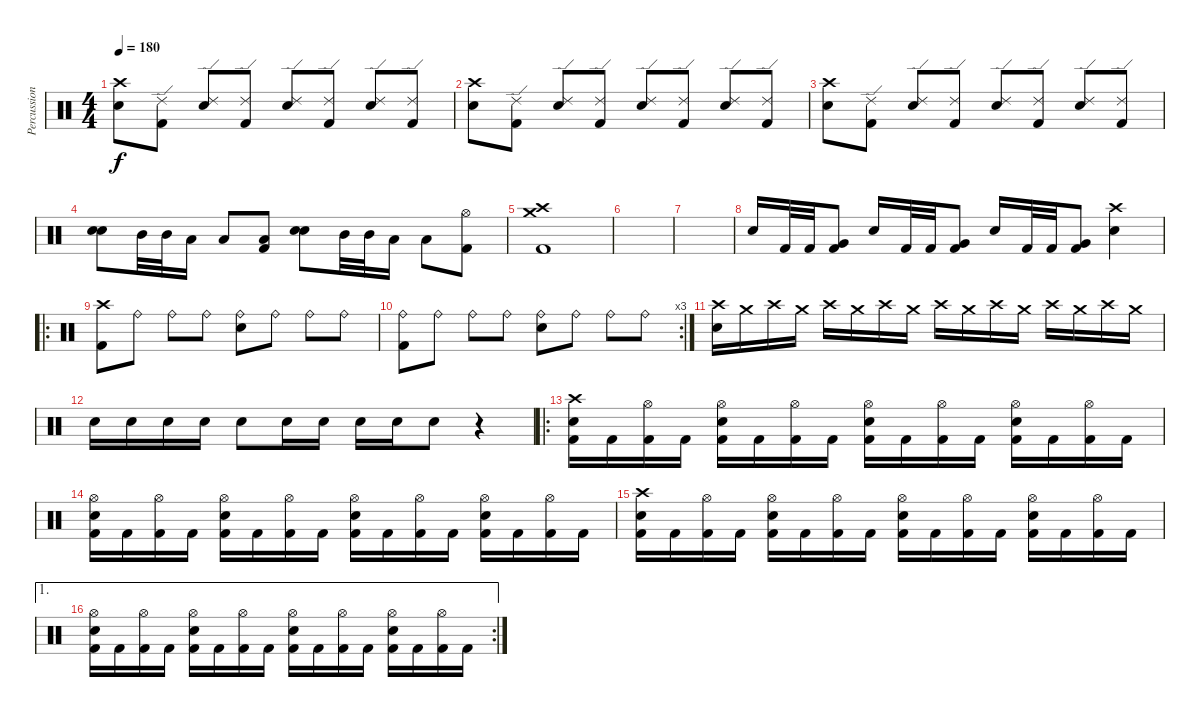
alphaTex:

\track ("Percussions" "Percussion") {instrument percussion}
\staff {score}
\articulation defaults
\ts (4 4)
\tempo 180
\clef neutral
\ks c
("Crash high (hit)" "Snare (hit) 2").8{dy f} ("Ride (edge) 2" "Kick (hit) 2").8 ("Ride (edge) 2" "Snare (hit) 2").8 ("Ride (edge) 2" "Kick (hit) 2").8 ("Ride (edge) 2" "Snare (hit) 2").8 ("Ride (edge) 2" "Kick (hit) 2").8 ("Ride (edge) 2" "Snare (hit) 2").8 ("Ride (edge) 2" "Kick (hit) 2").8 |
("Crash high (hit)" "Snare (hit) 2").8 ("Ride (edge) 2" "Kick (hit) 2").8 ("Ride (edge) 2" "Snare (hit) 2").8 ("Ride (edge) 2" "Kick (hit) 2").8 ("Ride (edge) 2" "Snare (hit) 2").8 ("Ride (edge) 2" "Kick (hit) 2").8 ("Ride (edge) 2" "Snare (hit) 2").8 ("Ride (edge) 2" "Kick (hit) 2").8 |
("Crash high (hit)" "Snare (hit) 2").8 ("Ride (edge) 2" "Kick (hit) 2").8 ("Ride (edge) 2" "Snare (hit) 2").8 ("Ride (edge) 2" "Kick (hit) 2").8 ("Ride (edge) 2" "Snare (hit) 2").8 ("Ride (edge) 2" "Kick (hit) 2").8 ("Ride (edge) 2" "Snare (hit) 2").8 ("Ride (edge) 2" "Kick (hit) 2").8 |
("Snare (hit) 2" "Snare (hit) 2").8{bd 240} "Mid Tom (hit)".32 "Mid Tom (hit)".32 "Low Tom (hit)".16 "Low Tom (hit)".8 ("Low Floor Tom (hit)" "Kick (hit) 2").8 ("Snare (hit) 2" "Snare (hit) 2").8{bd 240} "Mid Tom (hit)".32 "Mid Tom (hit)".32 "Low Tom (hit)".16 "Low Tom (hit)".8 ("Hi-Hat (open)" "Kick (hit) 2").8 |
("Crash medium (hit)" "Crash high (hit)" "Kick (hit) 2").1 |
|
|
"Snare (hit) 2".16 "Kick (hit) 2".32 "Kick (hit) 2".32 ("Very Low Tom (hit)" "Kick (hit) 2").8 "Snare (hit) 2".16 "Kick (hit) 2".32 "Kick (hit) 2".32 ("Very Low Tom (hit)" "Kick (hit) 2").8 "Snare (hit) 2".16 "Kick (hit) 2".32 "Kick (hit) 2".32 ("Very Low Tom (hit)" "Kick (hit) 2").8 ("Crash high (hit)" "Snare (hit) 2").4 |
\ro
("Crash high (hit)" "Kick (hit) 2").8 "Ride (bell)".8 "Ride (bell)".8 "Ride (bell)".8 ("Ride (bell)" "Snare (hit) 2").8 "Ride (bell)".8 "Ride (bell)".8 "Ride (bell)".8 |
\rc 3
("Ride (bell)" "Kick (hit) 2").8 "Ride (bell)".8 "Ride (bell)".8 "Ride (bell)".8 ("Ride (bell)" "Snare (hit) 2").8 "Ride (bell)".8 "Ride (bell)".8 "Ride (bell)".8 |
("Crash high (hit)" "Snare (hit) 2").16 "Crash medium (hit)".16 "Crash high (hit)".16 "Crash medium (hit)".16 "Crash high (hit)".16 "Crash medium (hit)".16 "Crash high (hit)".16 "Crash medium (hit)".16 "Crash high (hit)".16 "Crash medium (hit)".16 "Crash high (hit)".16 "Crash medium (hit)".16 "Crash high (hit)".16 "Crash medium (hit)".16 "Crash high (hit)".16 "Crash medium (hit)".16 |
"Snare (hit) 2".16 "Snare (hit) 2".16 "Snare (hit) 2".16 "Snare (hit) 2".16 "Snare (hit) 2".8 "Snare (hit) 2".16 "Snare (hit) 2".16 "Snare (hit) 2".16 "Snare (hit) 2".16 "Snare (hit) 2".8 r.4 |
\ro
("Crash high (hit)" "Snare (hit) 2" "Kick (hit) 2").16 "Kick (hit) 2".16 ("Hi-Hat (open)" "Kick (hit) 2").16 "Kick (hit) 2".16 ("Hi-Hat (open)" "Snare (hit) 2" "Kick (hit) 2").16 "Kick (hit) 2".16 ("Hi-Hat (open)" "Kick (hit) 2").16 "Kick (hit) 2".16 ("Hi-Hat (open)" "Snare (hit) 2" "Kick (hit) 2").16 "Kick (hit) 2".16 ("Hi-Hat (open)" "Kick (hit) 2").16 "Kick (hit) 2".16 ("Hi-Hat (open)" "Snare (hit) 2" "Kick (hit) 2").16 "Kick (hit) 2".16 ("Hi-Hat (open)" "Kick (hit) 2").16 "Kick (hit) 2".16 |
("Hi-Hat (open)" "Snare (hit) 2" "Kick (hit) 2").16 "Kick (hit) 2".16 ("Hi-Hat (open)" "Kick (hit) 2").16 "Kick (hit) 2".16 ("Hi-Hat (open)" "Snare (hit) 2" "Kick (hit) 2").16 "Kick (hit) 2".16 ("Hi-Hat (open)" "Kick (hit) 2").16 "Kick (hit) 2".16 ("Hi-Hat (open)" "Snare (hit) 2" "Kick (hit) 2").16 "Kick (hit) 2".16 ("Hi-Hat (open)" "Kick (hit) 2").16 "Kick (hit) 2".16 ("Hi-Hat (open)" "Snare (hit) 2" "Kick (hit) 2").16 "Kick (hit) 2".16 ("Hi-Hat (open)" "Kick (hit) 2").16 "Kick (hit) 2".16 |
("Crash high (hit)" "Snare (hit) 2" "Kick (hit) 2").16 "Kick (hit) 2".16 ("Hi-Hat (open)" "Kick (hit) 2").16 "Kick (hit) 2".16 ("Hi-Hat (open)" "Snare (hit) 2" "Kick (hit) 2").16 "Kick (hit) 2".16 ("Hi-Hat (open)" "Kick (hit) 2").16 "Kick (hit) 2".16 ("Hi-Hat (open)" "Snare (hit) 2" "Kick (hit) 2").16 "Kick (hit) 2".16 ("Hi-Hat (open)" "Kick (hit) 2").16 "Kick (hit) 2".16 ("Hi-Hat (open)" "Snare (hit) 2" "Kick (hit) 2").16 "Kick (hit) 2".16 ("Hi-Hat (open)" "Kick (hit) 2").16 "Kick (hit) 2".16 |
\ae 1
\rc 2
("Hi-Hat (open)" "Snare (hit) 2" "Kick (hit) 2").16 "Kick (hit) 2".16 ("Hi-Hat (open)" "Kick (hit) 2").16 "Kick (hit) 2".16 ("Hi-Hat (open)" "Snare (hit) 2" "Kick (hit) 2").16 "Kick (hit) 2".16 ("Hi-Hat (open)" "Kick (hit) 2").16 "Kick (hit) 2".16 ("Hi-Hat (open)" "Snare (hit) 2" "Kick (hit) 2").16 "Kick (hit) 2".16 ("Hi-Hat (open)" "Kick (hit) 2").16 "Kick (hit) 2".16 ("Hi-Hat (open)" "Snare (hit) 2" "Kick (hit) 2").16 "Kick (hit) 2".16 ("Hi-Hat (open)" "Kick (hit) 2").16 "Kick (hit) 2".16
